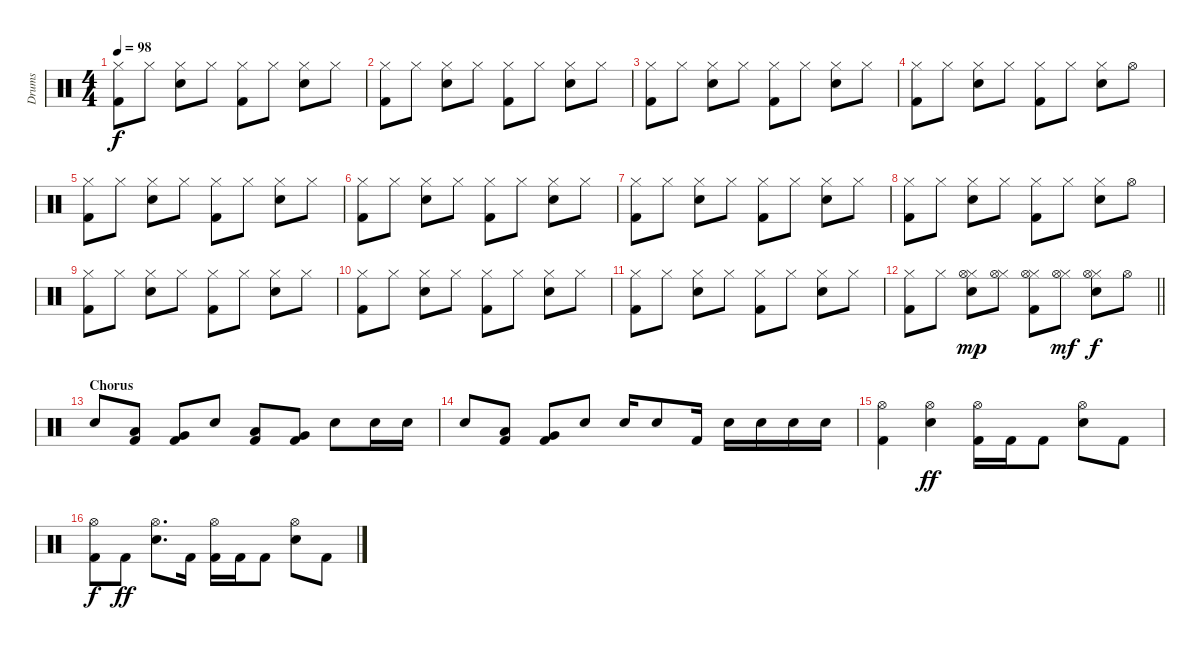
\track ("Drums" "Drums") {instrument percussion}
\staff {score}
\articulation defaults
\ts (4 4)
\tempo 98
\clef neutral
\ks c
("Hi-Hat (closed)" "Kick (hit) 2").8{dy f} "Hi-Hat (closed)".8 ("Hi-Hat (closed)" "Snare (hit) 2").8 "Hi-Hat (closed)".8 ("Hi-Hat (closed)" "Kick (hit) 2").8 "Hi-Hat (closed)".8 ("Hi-Hat (closed)" "Snare (hit) 2").8 "Hi-Hat (closed)".8 |
("Hi-Hat (closed)" "Kick (hit) 2").8 "Hi-Hat (closed)".8 ("Hi-Hat (closed)" "Snare (hit) 2").8 "Hi-Hat (closed)".8 ("Hi-Hat (closed)" "Kick (hit) 2").8 "Hi-Hat (closed)".8 ("Hi-Hat (closed)" "Snare (hit) 2").8 "Hi-Hat (closed)".8 |
("Hi-Hat (closed)" "Kick (hit) 2").8 "Hi-Hat (closed)".8 ("Hi-Hat (closed)" "Snare (hit) 2").8 "Hi-Hat (closed)".8 ("Hi-Hat (closed)" "Kick (hit) 2").8 "Hi-Hat (closed)".8 ("Hi-Hat (closed)" "Snare (hit) 2").8 "Hi-Hat (closed)".8 |
("Hi-Hat (closed)" "Kick (hit) 2").8 "Hi-Hat (closed)".8 ("Hi-Hat (closed)" "Snare (hit) 2").8 "Hi-Hat (closed)".8 ("Hi-Hat (closed)" "Kick (hit) 2").8 "Hi-Hat (closed)".8 ("Hi-Hat (closed)" "Snare (hit) 2").8 "Hi-Hat (open)".8 |
("Hi-Hat (closed)" "Kick (hit) 2").8 "Hi-Hat (closed)".8 ("Hi-Hat (closed)" "Snare (hit) 2").8 "Hi-Hat (closed)".8 ("Hi-Hat (closed)" "Kick (hit) 2").8 "Hi-Hat (closed)".8 ("Hi-Hat (closed)" "Snare (hit) 2").8 "Hi-Hat (closed)".8 |
("Hi-Hat (closed)" "Kick (hit) 2").8 "Hi-Hat (closed)".8 ("Hi-Hat (closed)" "Snare (hit) 2").8 "Hi-Hat (closed)".8 ("Hi-Hat (closed)" "Kick (hit) 2").8 "Hi-Hat (closed)".8 ("Hi-Hat (closed)" "Snare (hit) 2").8 "Hi-Hat (closed)".8 |
("Hi-Hat (closed)" "Kick (hit) 2").8 "Hi-Hat (closed)".8 ("Hi-Hat (closed)" "Snare (hit) 2").8 "Hi-Hat (closed)".8 ("Hi-Hat (closed)" "Kick (hit) 2").8 "Hi-Hat (closed)".8 ("Hi-Hat (closed)" "Snare (hit) 2").8 "Hi-Hat (closed)".8 |
("Hi-Hat (closed)" "Kick (hit) 2").8 "Hi-Hat (closed)".8 ("Hi-Hat (closed)" "Snare (hit) 2").8 "Hi-Hat (closed)".8 ("Hi-Hat (closed)" "Kick (hit) 2").8 "Hi-Hat (closed)".8 ("Hi-Hat (closed)" "Snare (hit) 2").8 "Hi-Hat (open)".8 |
("Hi-Hat (closed)" "Kick (hit) 2").8 "Hi-Hat (closed)".8 ("Hi-Hat (closed)" "Snare (hit) 2").8 "Hi-Hat (closed)".8 ("Hi-Hat (closed)" "Kick (hit) 2").8 "Hi-Hat (closed)".8 ("Hi-Hat (closed)" "Snare (hit) 2").8 "Hi-Hat (closed)".8 |
("Hi-Hat (closed)" "Kick (hit) 2").8 "Hi-Hat (closed)".8 ("Hi-Hat (closed)" "Snare (hit) 2").8 "Hi-Hat (closed)".8 ("Hi-Hat (closed)" "Kick (hit) 2").8 "Hi-Hat (closed)".8 ("Hi-Hat (closed)" "Snare (hit) 2").8 "Hi-Hat (closed)".8 |
("Hi-Hat (closed)" "Kick (hit) 2").8 "Hi-Hat (closed)".8 ("Hi-Hat (closed)" "Snare (hit) 2").8 "Hi-Hat (closed)".8 ("Hi-Hat (closed)" "Kick (hit) 2").8 "Hi-Hat (closed)".8 ("Hi-Hat (closed)" "Snare (hit) 2").8 "Hi-Hat (closed)".8 |
\barLineRight lightlight
("Hi-Hat (closed)" "Kick (hit) 2").8 "Hi-Hat (closed)".8 ("Hi-Hat (closed)" "Hi-Hat (open)" "Snare (hit) 2").8{dy mp} ("Hi-Hat (closed)" "Hi-Hat (open)").8 ("Hi-Hat (closed)" "Hi-Hat (open)" "Kick (hit) 2").8 ("Hi-Hat (closed)" "Hi-Hat (open)").8{dy mf} ("Hi-Hat (closed)" "Hi-Hat (open)" "Snare (hit) 2").8{dy f} "Hi-Hat (open)".8 |
\section ("" "Chorus")
"Snare (hit) 2".8 ("Low Tom (hit)" "Kick (hit) 2").8 ("Very Low Tom (hit)" "Kick (hit) 2").8 "Snare (hit) 2".8 ("Low Tom (hit)" "Kick (hit) 2").8 ("Very Low Tom (hit)" "Kick (hit) 2").8 "Snare (hit) 2".8 "Snare (hit) 2".16 "Snare (hit) 2".16 |
"Snare (hit) 2".8 ("Low Tom (hit)" "Kick (hit) 2").8 ("Very Low Tom (hit)" "Kick (hit) 2").8 "Snare (hit) 2".8 "Snare (hit) 2".16 "Snare (hit) 2".8 "Kick (hit) 2".16 "Snare (hit) 2".16 "Snare (hit) 2".16 "Snare (hit) 2".16 "Snare (hit) 2".16 |
("Hi-Hat (open)" "Kick (hit) 2").4 ("Hi-Hat (open)" "Snare (hit) 2").4{dy ff} ("Hi-Hat (open)" "Kick (hit) 2").16 "Kick (hit) 2".16 "Kick (hit) 2".8 ("Hi-Hat (open)" "Snare (hit) 2").8 "Kick (hit) 2".8 |
("Hi-Hat (open)" "Kick (hit) 2").8{dy f} "Kick (hit) 2".8{dy ff} ("Hi-Hat (open)" "Snare (hit) 2").8{d} "Kick (hit) 2".16 ("Hi-Hat (open)" "Kick (hit) 2").16 "Kick (hit) 2".16 "Kick (hit) 2".8 ("Hi-Hat (open)" "Snare (hit) 2").8 "Kick (hit) 2".8
